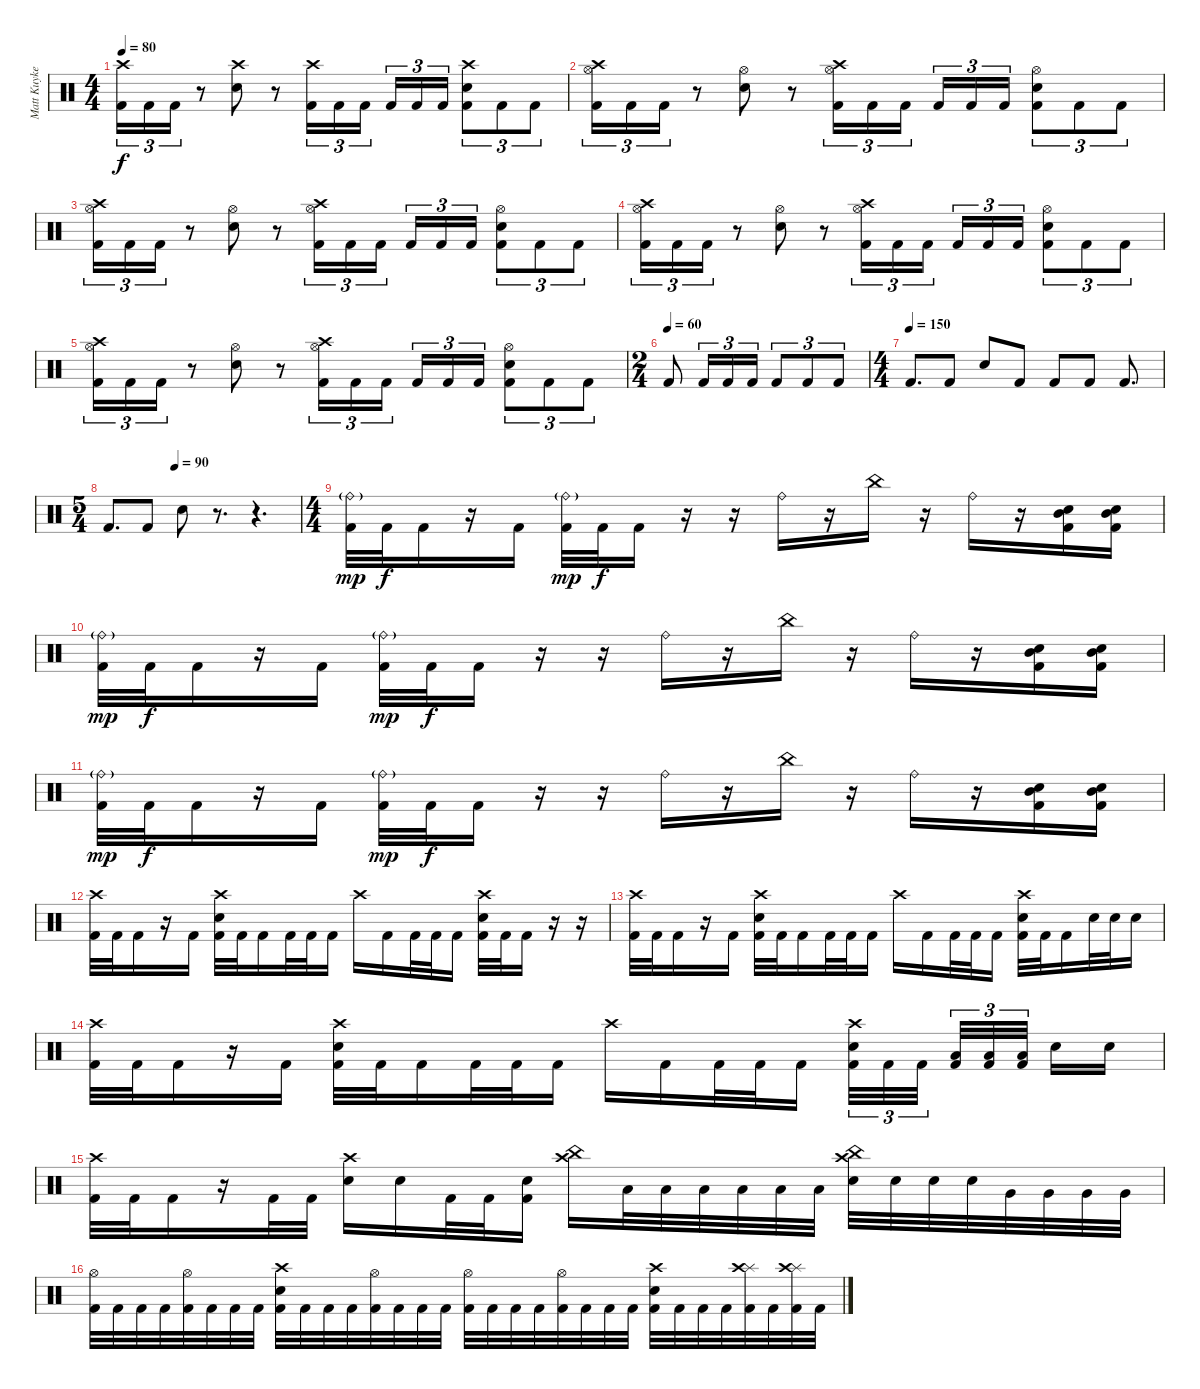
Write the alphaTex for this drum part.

\track ("Matt Kuykendall (Drums)" "Matt Kuyke") {instrument percussion}
\staff {score}
\articulation defaults
\ts (4 4)
\tempo 80
\clef neutral
\ks c
("Crash high (hit)" "Kick (hit) 2").16{tu (3 2) dy f} "Kick (hit) 2".16{tu (3 2)} "Kick (hit) 2".16{tu (3 2)} r.8 ("Crash high (hit)" "Snare (hit) 2").8 r.8 ("Crash high (hit)" "Kick (hit) 2").16{tu (3 2)} "Kick (hit) 2".16{tu (3 2)} "Kick (hit) 2".16{tu (3 2) beam splitsecondary} "Kick (hit) 2".16{tu (3 2)} "Kick (hit) 2".16{tu (3 2)} "Kick (hit) 2".16{tu (3 2)} ("Crash high (hit)" "Snare (hit) 2" "Kick (hit) 2").8{tu (3 2)} "Kick (hit) 2".8{tu (3 2)} "Kick (hit) 2".8{tu (3 2)} |
("Crash high (hit)" "Hi-Hat (open)" "Kick (hit) 2").16{tu (3 2)} "Kick (hit) 2".16{tu (3 2)} "Kick (hit) 2".16{tu (3 2)} r.8 ("Hi-Hat (open)" "Snare (hit) 2").8 r.8 ("Crash high (hit)" "Hi-Hat (open)" "Kick (hit) 2").16{tu (3 2)} "Kick (hit) 2".16{tu (3 2)} "Kick (hit) 2".16{tu (3 2) beam splitsecondary} "Kick (hit) 2".16{tu (3 2)} "Kick (hit) 2".16{tu (3 2)} "Kick (hit) 2".16{tu (3 2)} ("Hi-Hat (open)" "Snare (hit) 2" "Kick (hit) 2").8{tu (3 2)} "Kick (hit) 2".8{tu (3 2)} "Kick (hit) 2".8{tu (3 2)} |
("Crash high (hit)" "Hi-Hat (open)" "Kick (hit) 2").16{tu (3 2)} "Kick (hit) 2".16{tu (3 2)} "Kick (hit) 2".16{tu (3 2)} r.8 ("Hi-Hat (open)" "Snare (hit) 2").8 r.8 ("Crash high (hit)" "Hi-Hat (open)" "Kick (hit) 2").16{tu (3 2)} "Kick (hit) 2".16{tu (3 2)} "Kick (hit) 2".16{tu (3 2) beam splitsecondary} "Kick (hit) 2".16{tu (3 2)} "Kick (hit) 2".16{tu (3 2)} "Kick (hit) 2".16{tu (3 2)} ("Hi-Hat (open)" "Snare (hit) 2" "Kick (hit) 2").8{tu (3 2)} "Kick (hit) 2".8{tu (3 2)} "Kick (hit) 2".8{tu (3 2)} |
("Crash high (hit)" "Hi-Hat (open)" "Kick (hit) 2").16{tu (3 2)} "Kick (hit) 2".16{tu (3 2)} "Kick (hit) 2".16{tu (3 2)} r.8 ("Hi-Hat (open)" "Snare (hit) 2").8 r.8 ("Crash high (hit)" "Hi-Hat (open)" "Kick (hit) 2").16{tu (3 2)} "Kick (hit) 2".16{tu (3 2)} "Kick (hit) 2".16{tu (3 2) beam splitsecondary} "Kick (hit) 2".16{tu (3 2)} "Kick (hit) 2".16{tu (3 2)} "Kick (hit) 2".16{tu (3 2)} ("Hi-Hat (open)" "Snare (hit) 2" "Kick (hit) 2").8{tu (3 2)} "Kick (hit) 2".8{tu (3 2)} "Kick (hit) 2".8{tu (3 2)} |
("Crash high (hit)" "Hi-Hat (open)" "Kick (hit) 2").16{tu (3 2)} "Kick (hit) 2".16{tu (3 2)} "Kick (hit) 2".16{tu (3 2)} r.8 ("Hi-Hat (open)" "Snare (hit) 2").8 r.8 ("Crash high (hit)" "Hi-Hat (open)" "Kick (hit) 2").16{tu (3 2)} "Kick (hit) 2".16{tu (3 2)} "Kick (hit) 2".16{tu (3 2) beam splitsecondary} "Kick (hit) 2".16{tu (3 2)} "Kick (hit) 2".16{tu (3 2)} "Kick (hit) 2".16{tu (3 2)} ("Hi-Hat (open)" "Snare (hit) 2" "Kick (hit) 2").8{tu (3 2)} "Kick (hit) 2".8{tu (3 2)} "Kick (hit) 2".8{tu (3 2)} |
\ts (2 4)
\tempo (60)
"Kick (hit) 2".8 "Kick (hit) 2".16{tu (3 2)} "Kick (hit) 2".16{tu (3 2)} "Kick (hit) 2".16{tu (3 2)} "Kick (hit) 2".8{tu (3 2)} "Kick (hit) 2".8{tu (3 2)} "Kick (hit) 2".8{tu (3 2)} |
\ts (4 4)
\tempo (150)
"Kick (hit) 2".8{d} "Kick (hit) 2".8 "Snare (hit) 2".8 "Kick (hit) 2".8 "Kick (hit) 2".8 "Kick (hit) 2".8 "Kick (hit) 2".8{d} |
\ts (5 4)
\tempo (90 0.35)
"Kick (hit) 2".8{d} "Kick (hit) 2".8 "Snare (hit) 2".8 r.8{d} r.4{d} |
\ts (4 4)
("Ride (bell)"{g} "Kick (hit) 2").32{dy mp} "Kick (hit) 2".32{dy f} "Kick (hit) 2".16 r.16 "Kick (hit) 2".16 ("Ride (bell)"{g} "Kick (hit) 2").32{dy mp} "Kick (hit) 2".32{dy f} "Kick (hit) 2".16 r.16 r.16 "Ride (bell)".16 r.16 "China (hit)".16 r.16 "Ride (bell)".16 r.16 ("Snare (hit) 2" "Mid Tom (hit)" "Kick (hit) 2").16 ("Snare (hit) 2" "Mid Tom (hit)" "Kick (hit) 2").16 |
("Ride (bell)"{g} "Kick (hit) 2").32{dy mp} "Kick (hit) 2".32{dy f} "Kick (hit) 2".16 r.16 "Kick (hit) 2".16 ("Ride (bell)"{g} "Kick (hit) 2").32{dy mp} "Kick (hit) 2".32{dy f} "Kick (hit) 2".16 r.16 r.16 "Ride (bell)".16 r.16 "China (hit)".16 r.16 "Ride (bell)".16 r.16 ("Snare (hit) 2" "Mid Tom (hit)" "Kick (hit) 2").16 ("Snare (hit) 2" "Mid Tom (hit)" "Kick (hit) 2").16 |
("Ride (bell)"{g} "Kick (hit) 2").32{dy mp} "Kick (hit) 2".32{dy f} "Kick (hit) 2".16 r.16 "Kick (hit) 2".16 ("Ride (bell)"{g} "Kick (hit) 2").32{dy mp} "Kick (hit) 2".32{dy f} "Kick (hit) 2".16 r.16 r.16 "Ride (bell)".16 r.16 "China (hit)".16 r.16 "Ride (bell)".16 r.16 ("Snare (hit) 2" "Mid Tom (hit)" "Kick (hit) 2").16 ("Snare (hit) 2" "Mid Tom (hit)" "Kick (hit) 2").16 |
("Crash high (hit)" "Kick (hit) 2").32 "Kick (hit) 2".32 "Kick (hit) 2".16 r.16 "Kick (hit) 2".16 ("Crash high (hit)" "Snare (hit) 2" "Kick (hit) 2").32 "Kick (hit) 2".32 "Kick (hit) 2".16 "Kick (hit) 2".32 "Kick (hit) 2".32 "Kick (hit) 2".16 "Crash high (hit)".16 "Kick (hit) 2".16 "Kick (hit) 2".32 "Kick (hit) 2".32 "Kick (hit) 2".16 ("Crash high (hit)" "Snare (hit) 2" "Kick (hit) 2").32 "Kick (hit) 2".32 "Kick (hit) 2".16 r.16 r.16 |
("Crash high (hit)" "Kick (hit) 2").32 "Kick (hit) 2".32 "Kick (hit) 2".16 r.16 "Kick (hit) 2".16 ("Crash high (hit)" "Snare (hit) 2" "Kick (hit) 2").32 "Kick (hit) 2".32 "Kick (hit) 2".16 "Kick (hit) 2".32 "Kick (hit) 2".32 "Kick (hit) 2".16 "Crash high (hit)".16 "Kick (hit) 2".16 "Kick (hit) 2".32 "Kick (hit) 2".32 "Kick (hit) 2".16 ("Crash high (hit)" "Snare (hit) 2" "Kick (hit) 2").32 "Kick (hit) 2".32 "Kick (hit) 2".16 "Snare (hit) 2".32 "Snare (hit) 2".32 "Snare (hit) 2".16 |
("Crash high (hit)" "Kick (hit) 2").32 "Kick (hit) 2".32 "Kick (hit) 2".16 r.16 "Kick (hit) 2".16 ("Crash high (hit)" "Snare (hit) 2" "Kick (hit) 2").32 "Kick (hit) 2".32 "Kick (hit) 2".16 "Kick (hit) 2".32 "Kick (hit) 2".32 "Kick (hit) 2".16 "Crash high (hit)".16 "Kick (hit) 2".16 "Kick (hit) 2".32 "Kick (hit) 2".32 "Kick (hit) 2".16 ("Crash high (hit)" "Snare (hit) 2" "Kick (hit) 2").32{tu (3 2)} "Kick (hit) 2".32{tu (3 2)} "Kick (hit) 2".32{tu (3 2) beam splitsecondary} ("Low Floor Tom (hit)" "Kick (hit) 2").32{tu (3 2)} ("Low Floor Tom (hit)" "Kick (hit) 2").32{tu (3 2)} ("Low Floor Tom (hit)" "Kick (hit) 2").32{tu (3 2) beam splitsecondary} "Snare (hit) 2".16 "Snare (hit) 2".16 |
("Crash high (hit)" "Kick (hit) 2").32 "Kick (hit) 2".32 "Kick (hit) 2".16 r.16 "Kick (hit) 2".32 "Kick (hit) 2".32 ("Crash high (hit)" "Snare (hit) 2").16 "Snare (hit) 2".16 "Kick (hit) 2".32 "Kick (hit) 2".32 ("Snare (hit) 2" "Kick (hit) 2").16 ("Crash high (hit)" "China (hit)").16 "Low Floor Tom (hit)".32 "Low Floor Tom (hit)".32 "Low Floor Tom (hit)".32 "Low Floor Tom (hit)".32 "Low Floor Tom (hit)".32 "Low Floor Tom (hit)".32 ("Crash high (hit)" "China (hit)" "Snare (hit) 2").32 "Snare (hit) 2".32 "Snare (hit) 2".32 "Snare (hit) 2".32 "Very Low Tom (hit)".32 "Very Low Tom (hit)".32 "Very Low Tom (hit)".32 "Very Low Tom (hit)".32 |
("Hi-Hat (open)" "Kick (hit) 2").32 "Kick (hit) 2".32 "Kick (hit) 2".32 "Kick (hit) 2".32 ("Hi-Hat (open)" "Kick (hit) 2").32 "Kick (hit) 2".32 "Kick (hit) 2".32 "Kick (hit) 2".32 ("Crash high (hit)" "Snare (hit) 2" "Kick (hit) 2").32 "Kick (hit) 2".32 "Kick (hit) 2".32 "Kick (hit) 2".32 ("Hi-Hat (open)" "Kick (hit) 2").32 "Kick (hit) 2".32 "Kick (hit) 2".32 "Kick (hit) 2".32 ("Hi-Hat (open)" "Kick (hit) 2").32 "Kick (hit) 2".32 "Kick (hit) 2".32 "Kick (hit) 2".32 ("Hi-Hat (open)" "Kick (hit) 2").32 "Kick (hit) 2".32 "Kick (hit) 2".32 "Kick (hit) 2".32 ("Crash high (hit)" "Snare (hit) 2" "Kick (hit) 2").32 "Kick (hit) 2".32 "Kick (hit) 2".32 "Kick (hit) 2".32 ("Splash (hit)" "Crash high (hit)" "Kick (hit) 2").32 "Kick (hit) 2".32 ("Splash (hit)" "Crash high (hit)" "Kick (hit) 2").32 "Kick (hit) 2".32
